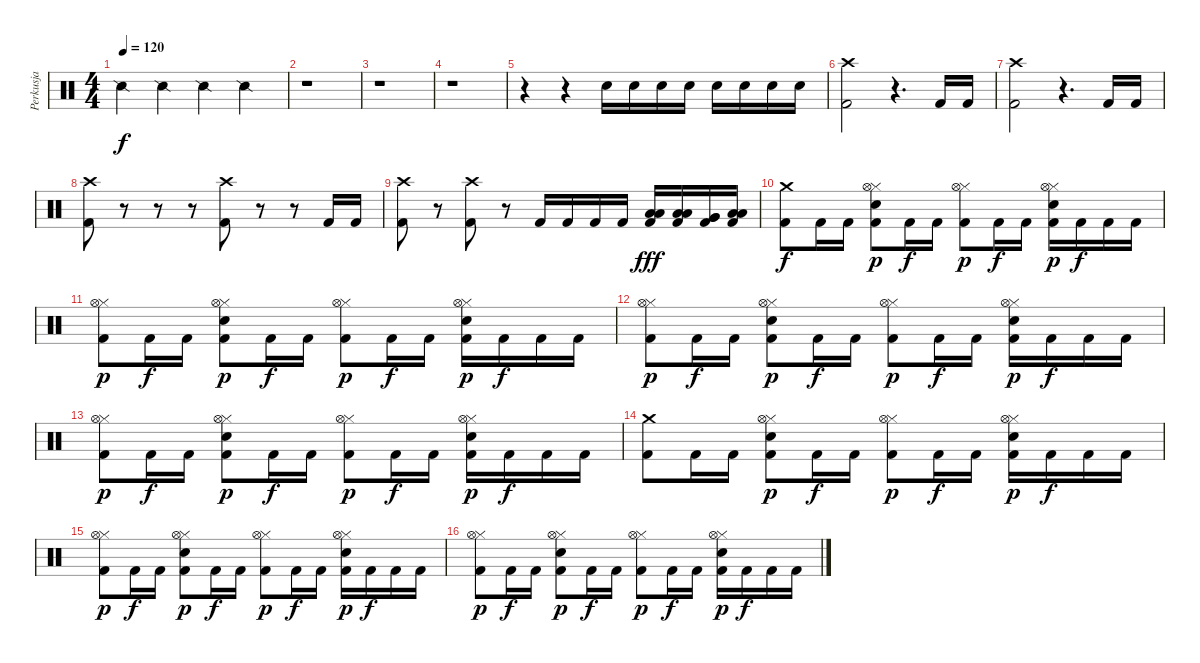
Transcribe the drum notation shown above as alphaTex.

\track ("Perkusja" "Perkusja") {instrument percussion}
\staff {score}
\articulation defaults
\ts (4 4)
\tempo 120
\clef neutral
\ks c "Snare (side stick) 2".4{dy f} "Snare (side stick) 2".4 "Snare (side stick) 2".4 "Snare (side stick) 2".4
|
r.1 |
r.1 |
r.1 |
r.4 r.4 "Electric Snare (hit)".16 "Electric Snare (hit)".16 "Electric Snare (hit)".16 "Electric Snare (hit)".16 "Electric Snare (hit)".16 "Electric Snare (hit)".16 "Electric Snare (hit)".16 "Electric Snare (hit)".16 |
("Kick (hit) 2" "Crash high (hit)").2 r.4{d} "Kick (hit) 2".16 "Kick (hit) 2".16 |
("Kick (hit) 2" "Crash high (hit)").2 r.4{d} "Kick (hit) 2".16 "Kick (hit) 2".16 |
("Kick (hit) 2" "Crash high (hit)").8 r.8 r.8 r.8 ("Kick (hit) 2" "Crash high (hit)").8 r.8 r.8 "Kick (hit) 2".16 "Kick (hit) 2".16 |
("Kick (hit) 2" "Crash high (hit)").8 r.8 ("Kick (hit) 2" "Crash high (hit)").8 r.8 "Kick (hit) 2".16 "Kick (hit) 2".16 "Kick (hit) 2".16 "Kick (hit) 2".16 ("Kick (hit) 2" "Low Floor Tom (hit)" "Low Floor Tom (hit)").16{dy fff} ("Kick (hit) 2" "Low Floor Tom (hit)" "Low Floor Tom (hit)").16 ("Kick (hit) 2" "Very Low Tom (hit)" "Very Low Tom (hit)").16 ("Kick (hit) 2" "Low Tom (hit)" "Low Tom (hit)").16 |
("Kick (hit) 2" "Crash medium (hit)").8{dy f} "Kick (hit) 2".16 "Kick (hit) 2".16 ("Kick (hit) 2" "Electric Snare (hit)" "Hi-Hat (closed)" "Hi-Hat (open)").8{dy p} "Kick (hit) 2".16{dy f} "Kick (hit) 2".16 ("Kick (hit) 2" "Hi-Hat (closed)" "Hi-Hat (open)").8{dy p} "Kick (hit) 2".16{dy f} "Kick (hit) 2".16 ("Kick (hit) 2" "Electric Snare (hit)" "Hi-Hat (closed)" "Hi-Hat (open)").16{dy p} "Kick (hit) 2".16{dy f} "Kick (hit) 2".16 "Kick (hit) 2".16 |
("Kick (hit) 2" "Hi-Hat (closed)" "Hi-Hat (open)").8{dy p} "Kick (hit) 2".16{dy f} "Kick (hit) 2".16 ("Kick (hit) 2" "Electric Snare (hit)" "Hi-Hat (closed)" "Hi-Hat (open)").8{dy p} "Kick (hit) 2".16{dy f} "Kick (hit) 2".16 ("Kick (hit) 2" "Hi-Hat (closed)" "Hi-Hat (open)").8{dy p} "Kick (hit) 2".16{dy f} "Kick (hit) 2".16 ("Kick (hit) 2" "Electric Snare (hit)" "Hi-Hat (closed)" "Hi-Hat (open)").16{dy p} "Kick (hit) 2".16{dy f} "Kick (hit) 2".16 "Kick (hit) 2".16 |
("Kick (hit) 2" "Hi-Hat (closed)" "Hi-Hat (open)").8{dy p} "Kick (hit) 2".16{dy f} "Kick (hit) 2".16 ("Kick (hit) 2" "Electric Snare (hit)" "Hi-Hat (closed)" "Hi-Hat (open)").8{dy p} "Kick (hit) 2".16{dy f} "Kick (hit) 2".16 ("Kick (hit) 2" "Hi-Hat (closed)" "Hi-Hat (open)").8{dy p} "Kick (hit) 2".16{dy f} "Kick (hit) 2".16 ("Kick (hit) 2" "Electric Snare (hit)" "Hi-Hat (closed)" "Hi-Hat (open)").16{dy p} "Kick (hit) 2".16{dy f} "Kick (hit) 2".16 "Kick (hit) 2".16 |
("Kick (hit) 2" "Hi-Hat (closed)" "Hi-Hat (open)").8{dy p} "Kick (hit) 2".16{dy f} "Kick (hit) 2".16 ("Kick (hit) 2" "Electric Snare (hit)" "Hi-Hat (closed)" "Hi-Hat (open)").8{dy p} "Kick (hit) 2".16{dy f} "Kick (hit) 2".16 ("Kick (hit) 2" "Hi-Hat (closed)" "Hi-Hat (open)").8{dy p} "Kick (hit) 2".16{dy f} "Kick (hit) 2".16 ("Kick (hit) 2" "Electric Snare (hit)" "Hi-Hat (closed)" "Hi-Hat (open)").16{dy p} "Kick (hit) 2".16{dy f} "Kick (hit) 2".16 "Kick (hit) 2".16 |
("Kick (hit) 2" "Crash medium (hit)").8 "Kick (hit) 2".16 "Kick (hit) 2".16 ("Kick (hit) 2" "Electric Snare (hit)" "Hi-Hat (closed)" "Hi-Hat (open)").8{dy p} "Kick (hit) 2".16{dy f} "Kick (hit) 2".16 ("Kick (hit) 2" "Hi-Hat (closed)" "Hi-Hat (open)").8{dy p} "Kick (hit) 2".16{dy f} "Kick (hit) 2".16 ("Kick (hit) 2" "Electric Snare (hit)" "Hi-Hat (closed)" "Hi-Hat (open)").16{dy p} "Kick (hit) 2".16{dy f} "Kick (hit) 2".16 "Kick (hit) 2".16 |
("Kick (hit) 2" "Hi-Hat (closed)" "Hi-Hat (open)").8{dy p} "Kick (hit) 2".16{dy f} "Kick (hit) 2".16 ("Kick (hit) 2" "Electric Snare (hit)" "Hi-Hat (closed)" "Hi-Hat (open)").8{dy p} "Kick (hit) 2".16{dy f} "Kick (hit) 2".16 ("Kick (hit) 2" "Hi-Hat (closed)" "Hi-Hat (open)").8{dy p} "Kick (hit) 2".16{dy f} "Kick (hit) 2".16 ("Kick (hit) 2" "Electric Snare (hit)" "Hi-Hat (closed)" "Hi-Hat (open)").16{dy p} "Kick (hit) 2".16{dy f} "Kick (hit) 2".16 "Kick (hit) 2".16 |
("Kick (hit) 2" "Hi-Hat (closed)" "Hi-Hat (open)").8{dy p} "Kick (hit) 2".16{dy f} "Kick (hit) 2".16 ("Kick (hit) 2" "Electric Snare (hit)" "Hi-Hat (closed)" "Hi-Hat (open)").8{dy p} "Kick (hit) 2".16{dy f} "Kick (hit) 2".16 ("Kick (hit) 2" "Hi-Hat (closed)" "Hi-Hat (open)").8{dy p} "Kick (hit) 2".16{dy f} "Kick (hit) 2".16 ("Kick (hit) 2" "Electric Snare (hit)" "Hi-Hat (closed)" "Hi-Hat (open)").16{dy p} "Kick (hit) 2".16{dy f} "Kick (hit) 2".16 "Kick (hit) 2".16
